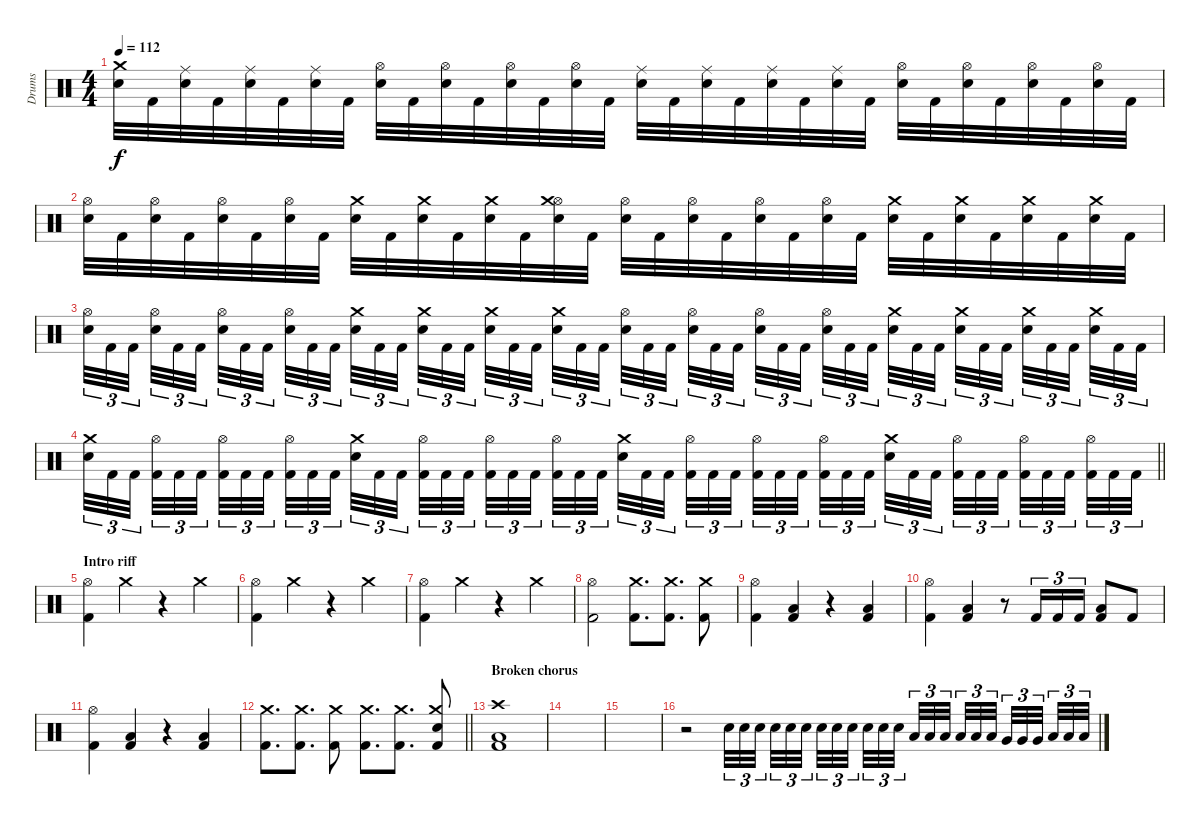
\track ("Drums" "Drums") {instrument percussion}
\staff {score}
\articulation defaults
\ts (4 4)
\tempo 112
\clef neutral
\ks c
("Snare (hit) 2" "Crash medium (hit)").32{dy f} "Kick (hit) 2".32 ("Ride (middle)" "Snare (hit) 2").32 "Kick (hit) 2".32 ("Ride (middle)" "Snare (hit) 2").32 "Kick (hit) 2".32 ("Ride (middle)" "Snare (hit) 2").32 "Kick (hit) 2".32 ("Hi-Hat (open)" "Snare (hit) 2").32 "Kick (hit) 2".32 ("Hi-Hat (open)" "Snare (hit) 2").32 "Kick (hit) 2".32 ("Hi-Hat (open)" "Snare (hit) 2").32 "Kick (hit) 2".32 ("Hi-Hat (open)" "Snare (hit) 2").32 "Kick (hit) 2".32 ("Ride (middle)" "Snare (hit) 2").32 "Kick (hit) 2".32 ("Ride (middle)" "Snare (hit) 2").32 "Kick (hit) 2".32 ("Ride (middle)" "Snare (hit) 2").32 "Kick (hit) 2".32 ("Ride (middle)" "Snare (hit) 2").32 "Kick (hit) 2".32 ("Hi-Hat (open)" "Snare (hit) 2").32 "Kick (hit) 2".32 ("Hi-Hat (open)" "Snare (hit) 2").32 "Kick (hit) 2".32 ("Hi-Hat (open)" "Snare (hit) 2").32 "Kick (hit) 2".32 ("Hi-Hat (open)" "Snare (hit) 2").32 "Kick (hit) 2".32 |
("Hi-Hat (open)" "Snare (hit) 2").32 "Kick (hit) 2".32 ("Hi-Hat (open)" "Snare (hit) 2").32 "Kick (hit) 2".32 ("Hi-Hat (open)" "Snare (hit) 2").32 "Kick (hit) 2".32 ("Hi-Hat (open)" "Snare (hit) 2").32 "Kick (hit) 2".32 ("Snare (hit) 2" "Crash medium (hit)").32 "Kick (hit) 2".32 ("Snare (hit) 2" "Crash medium (hit)").32 "Kick (hit) 2".32 ("Snare (hit) 2" "Crash medium (hit)").32 "Kick (hit) 2".32 ("Hi-Hat (open)" "Snare (hit) 2" "Crash medium (hit)").32 "Kick (hit) 2".32 ("Hi-Hat (open)" "Snare (hit) 2").32 "Kick (hit) 2".32 ("Hi-Hat (open)" "Snare (hit) 2").32 "Kick (hit) 2".32 ("Hi-Hat (open)" "Snare (hit) 2").32 "Kick (hit) 2".32 ("Hi-Hat (open)" "Snare (hit) 2").32 "Kick (hit) 2".32 ("Snare (hit) 2" "Crash medium (hit)").32 "Kick (hit) 2".32 ("Snare (hit) 2" "Crash medium (hit)").32 "Kick (hit) 2".32 ("Snare (hit) 2" "Crash medium (hit)").32 "Kick (hit) 2".32 ("Snare (hit) 2" "Crash medium (hit)").32 "Kick (hit) 2".32 |
("Hi-Hat (open)" "Snare (hit) 2").32{tu (3 2)} "Kick (hit) 2".32{tu (3 2)} "Kick (hit) 2".32{tu (3 2) beam splitsecondary} ("Hi-Hat (open)" "Snare (hit) 2").32{tu (3 2)} "Kick (hit) 2".32{tu (3 2)} "Kick (hit) 2".32{tu (3 2) beam splitsecondary} ("Hi-Hat (open)" "Snare (hit) 2").32{tu (3 2)} "Kick (hit) 2".32{tu (3 2)} "Kick (hit) 2".32{tu (3 2) beam splitsecondary} ("Hi-Hat (open)" "Snare (hit) 2").32{tu (3 2)} "Kick (hit) 2".32{tu (3 2)} "Kick (hit) 2".32{tu (3 2)} ("Snare (hit) 2" "Crash medium (hit)").32{tu (3 2)} "Kick (hit) 2".32{tu (3 2)} "Kick (hit) 2".32{tu (3 2) beam splitsecondary} ("Snare (hit) 2" "Crash medium (hit)").32{tu (3 2)} "Kick (hit) 2".32{tu (3 2)} "Kick (hit) 2".32{tu (3 2) beam splitsecondary} ("Snare (hit) 2" "Crash medium (hit)").32{tu (3 2)} "Kick (hit) 2".32{tu (3 2)} "Kick (hit) 2".32{tu (3 2) beam splitsecondary} ("Snare (hit) 2" "Crash medium (hit)").32{tu (3 2)} "Kick (hit) 2".32{tu (3 2)} "Kick (hit) 2".32{tu (3 2)} ("Hi-Hat (open)" "Snare (hit) 2").32{tu (3 2)} "Kick (hit) 2".32{tu (3 2)} "Kick (hit) 2".32{tu (3 2) beam splitsecondary} ("Hi-Hat (open)" "Snare (hit) 2").32{tu (3 2)} "Kick (hit) 2".32{tu (3 2)} "Kick (hit) 2".32{tu (3 2) beam splitsecondary} ("Hi-Hat (open)" "Snare (hit) 2").32{tu (3 2)} "Kick (hit) 2".32{tu (3 2)} "Kick (hit) 2".32{tu (3 2) beam splitsecondary} ("Hi-Hat (open)" "Snare (hit) 2").32{tu (3 2)} "Kick (hit) 2".32{tu (3 2)} "Kick (hit) 2".32{tu (3 2)} ("Snare (hit) 2" "Crash medium (hit)").32{tu (3 2)} "Kick (hit) 2".32{tu (3 2)} "Kick (hit) 2".32{tu (3 2) beam splitsecondary} ("Snare (hit) 2" "Crash medium (hit)").32{tu (3 2)} "Kick (hit) 2".32{tu (3 2)} "Kick (hit) 2".32{tu (3 2) beam splitsecondary} ("Snare (hit) 2" "Crash medium (hit)").32{tu (3 2)} "Kick (hit) 2".32{tu (3 2)} "Kick (hit) 2".32{tu (3 2) beam splitsecondary} ("Snare (hit) 2" "Crash medium (hit)").32{tu (3 2)} "Kick (hit) 2".32{tu (3 2)} "Kick (hit) 2".32{tu (3 2)} |
\barLineRight lightlight
("Snare (hit) 2" "Crash medium (hit)").32{tu (3 2)} "Kick (hit) 2".32{tu (3 2)} "Kick (hit) 2".32{tu (3 2) beam splitsecondary} ("Hi-Hat (open)" "Kick (hit) 2").32{tu (3 2)} "Kick (hit) 2".32{tu (3 2)} "Kick (hit) 2".32{tu (3 2) beam splitsecondary} ("Hi-Hat (open)" "Kick (hit) 2").32{tu (3 2)} "Kick (hit) 2".32{tu (3 2)} "Kick (hit) 2".32{tu (3 2) beam splitsecondary} ("Hi-Hat (open)" "Kick (hit) 2").32{tu (3 2)} "Kick (hit) 2".32{tu (3 2)} "Kick (hit) 2".32{tu (3 2)} ("Snare (hit) 2" "Crash medium (hit)").32{tu (3 2)} "Kick (hit) 2".32{tu (3 2)} "Kick (hit) 2".32{tu (3 2) beam splitsecondary} ("Hi-Hat (open)" "Kick (hit) 2").32{tu (3 2)} "Kick (hit) 2".32{tu (3 2)} "Kick (hit) 2".32{tu (3 2) beam splitsecondary} ("Hi-Hat (open)" "Kick (hit) 2").32{tu (3 2)} "Kick (hit) 2".32{tu (3 2)} "Kick (hit) 2".32{tu (3 2) beam splitsecondary} ("Hi-Hat (open)" "Kick (hit) 2").32{tu (3 2)} "Kick (hit) 2".32{tu (3 2)} "Kick (hit) 2".32{tu (3 2)} ("Snare (hit) 2" "Crash medium (hit)").32{tu (3 2)} "Kick (hit) 2".32{tu (3 2)} "Kick (hit) 2".32{tu (3 2) beam splitsecondary} ("Hi-Hat (open)" "Kick (hit) 2").32{tu (3 2)} "Kick (hit) 2".32{tu (3 2)} "Kick (hit) 2".32{tu (3 2) beam splitsecondary} ("Hi-Hat (open)" "Kick (hit) 2").32{tu (3 2)} "Kick (hit) 2".32{tu (3 2)} "Kick (hit) 2".32{tu (3 2) beam splitsecondary} ("Hi-Hat (open)" "Kick (hit) 2").32{tu (3 2)} "Kick (hit) 2".32{tu (3 2)} "Kick (hit) 2".32{tu (3 2)} ("Snare (hit) 2" "Crash medium (hit)").32{tu (3 2)} "Kick (hit) 2".32{tu (3 2)} "Kick (hit) 2".32{tu (3 2) beam splitsecondary} ("Hi-Hat (open)" "Kick (hit) 2").32{tu (3 2)} "Kick (hit) 2".32{tu (3 2)} "Kick (hit) 2".32{tu (3 2) beam splitsecondary} ("Hi-Hat (open)" "Kick (hit) 2").32{tu (3 2)} "Kick (hit) 2".32{tu (3 2)} "Kick (hit) 2".32{tu (3 2) beam splitsecondary} ("Hi-Hat (open)" "Kick (hit) 2").32{tu (3 2)} "Kick (hit) 2".32{tu (3 2)} "Kick (hit) 2".32{tu (3 2)} |
\section ("" "Intro riff")
("Hi-Hat (open)" "Kick (hit) 2").4 "Crash medium (hit)".4 r.4 "Crash medium (hit)".4 |
("Hi-Hat (open)" "Kick (hit) 2").4 "Crash medium (hit)".4 r.4 "Crash medium (hit)".4 |
("Hi-Hat (open)" "Kick (hit) 2").4 "Crash medium (hit)".4 r.4 "Crash medium (hit)".4 |
("Hi-Hat (open)" "Kick (hit) 2").2 ("Kick (hit) 2" "Crash medium (hit)").8{d} ("Kick (hit) 2" "Crash medium (hit)").8{d} ("Kick (hit) 2" "Crash medium (hit)").8 |
("Hi-Hat (open)" "Kick (hit) 2").4 ("Low Floor Tom (hit)" "Kick (hit) 2").4 r.4 ("Low Floor Tom (hit)" "Kick (hit) 2").4 |
("Hi-Hat (open)" "Kick (hit) 2").4 ("Low Floor Tom (hit)" "Kick (hit) 2").4 r.8 "Kick (hit) 2".16{tu (3 2)} "Kick (hit) 2".16{tu (3 2)} "Kick (hit) 2".16{tu (3 2)} ("Low Floor Tom (hit)" "Kick (hit) 2").8 "Kick (hit) 2".8 |
("Hi-Hat (open)" "Kick (hit) 2").4 ("Low Floor Tom (hit)" "Kick (hit) 2").4 r.4 ("Low Floor Tom (hit)" "Kick (hit) 2").4 |
\barLineRight lightlight
("Kick (hit) 2" "Crash medium (hit)").8{d} ("Kick (hit) 2" "Crash medium (hit)").8{d} ("Kick (hit) 2" "Crash medium (hit)").8 ("Kick (hit) 2" "Crash medium (hit)").8{d} ("Kick (hit) 2" "Crash medium (hit)").8{d} ("Snare (hit) 2" "Kick (hit) 2" "Crash medium (hit)").8 |
\section ("" "Broken chorus")
("Low Floor Tom (hit)" "Kick (hit) 2" "Crash high (hit)").1 |
|
|
r.2 "Snare (hit) 2".32{tu (3 2)} "Snare (hit) 2".32{tu (3 2)} "Snare (hit) 2".32{tu (3 2) beam splitsecondary} "Snare (hit) 2".32{tu (3 2)} "Snare (hit) 2".32{tu (3 2)} "Snare (hit) 2".32{tu (3 2) beam splitsecondary} "Snare (hit) 2".32{tu (3 2)} "Snare (hit) 2".32{tu (3 2)} "Snare (hit) 2".32{tu (3 2) beam splitsecondary} "Snare (hit) 2".32{tu (3 2)} "Snare (hit) 2".32{tu (3 2)} "Snare (hit) 2".32{tu (3 2)} "Low Tom (hit)".32{tu (3 2)} "Low Tom (hit)".32{tu (3 2)} "Low Tom (hit)".32{tu (3 2) beam splitsecondary} "Low Tom (hit)".32{tu (3 2)} "Low Tom (hit)".32{tu (3 2)} "Low Tom (hit)".32{tu (3 2) beam splitsecondary} "Very Low Tom (hit)".32{tu (3 2)} "Very Low Tom (hit)".32{tu (3 2)} "Very Low Tom (hit)".32{tu (3 2) beam splitsecondary} "Low Floor Tom (hit)".32{tu (3 2)} "Low Floor Tom (hit)".32{tu (3 2)} "Low Floor Tom (hit)".32{tu (3 2)}
